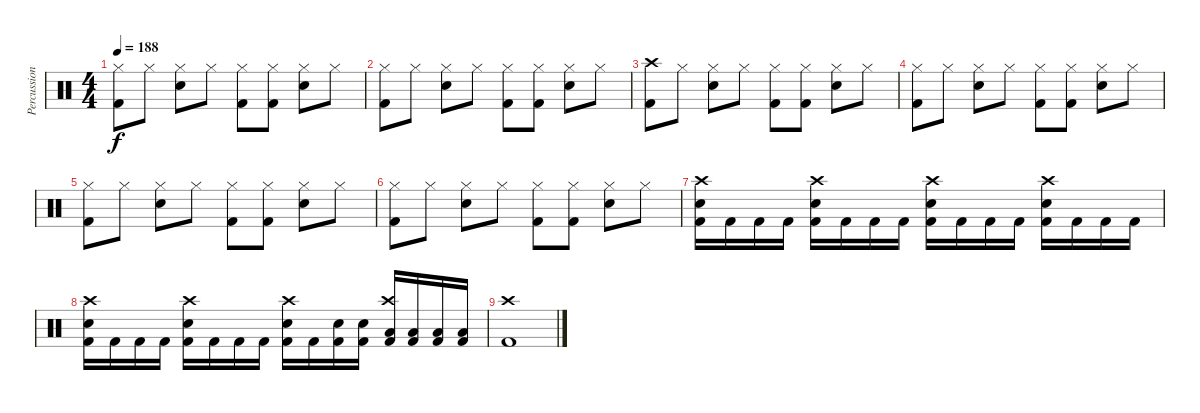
\track ("Percussions" "Percussion") {instrument percussion}
\staff {score}
\articulation defaults
\ts (4 4)
\tempo 188
\clef neutral
\ks c
("Hi-Hat (closed)" "Kick (hit) 2").8{dy f} "Hi-Hat (closed)".8 ("Hi-Hat (closed)" "Electric Snare (hit)").8 "Hi-Hat (closed)".8 ("Hi-Hat (closed)" "Kick (hit) 2").8 ("Hi-Hat (closed)" "Kick (hit) 2").8 ("Hi-Hat (closed)" "Electric Snare (hit)").8 "Hi-Hat (closed)".8 |
("Hi-Hat (closed)" "Kick (hit) 2").8 "Hi-Hat (closed)".8 ("Hi-Hat (closed)" "Electric Snare (hit)").8 "Hi-Hat (closed)".8 ("Hi-Hat (closed)" "Kick (hit) 2").8 ("Hi-Hat (closed)" "Kick (hit) 2").8 ("Hi-Hat (closed)" "Electric Snare (hit)").8 "Hi-Hat (closed)".8 |
("Crash high (hit)" "Kick (hit) 2").8 "Hi-Hat (closed)".8 ("Hi-Hat (closed)" "Electric Snare (hit)").8 "Hi-Hat (closed)".8 ("Hi-Hat (closed)" "Kick (hit) 2").8 ("Hi-Hat (closed)" "Kick (hit) 2").8 ("Hi-Hat (closed)" "Electric Snare (hit)").8 "Hi-Hat (closed)".8 |
("Hi-Hat (closed)" "Kick (hit) 2").8 "Hi-Hat (closed)".8 ("Hi-Hat (closed)" "Electric Snare (hit)").8 "Hi-Hat (closed)".8 ("Hi-Hat (closed)" "Kick (hit) 2").8 ("Hi-Hat (closed)" "Kick (hit) 2").8 ("Hi-Hat (closed)" "Electric Snare (hit)").8 "Hi-Hat (closed)".8 |
("Hi-Hat (closed)" "Kick (hit) 2").8 "Hi-Hat (closed)".8 ("Hi-Hat (closed)" "Electric Snare (hit)").8 "Hi-Hat (closed)".8 ("Hi-Hat (closed)" "Kick (hit) 2").8 ("Hi-Hat (closed)" "Kick (hit) 2").8 ("Hi-Hat (closed)" "Electric Snare (hit)").8 "Hi-Hat (closed)".8 |
("Hi-Hat (closed)" "Kick (hit) 2").8 "Hi-Hat (closed)".8 ("Hi-Hat (closed)" "Electric Snare (hit)").8 "Hi-Hat (closed)".8 ("Hi-Hat (closed)" "Kick (hit) 2").8 ("Hi-Hat (closed)" "Kick (hit) 2").8 ("Hi-Hat (closed)" "Electric Snare (hit)").8 "Hi-Hat (closed)".8 |
("Crash high (hit)" "Electric Snare (hit)" "Kick (hit) 2").16 "Kick (hit) 2".16 "Kick (hit) 2".16 "Kick (hit) 2".16 ("Crash high (hit)" "Electric Snare (hit)" "Kick (hit) 2").16 "Kick (hit) 2".16 "Kick (hit) 2".16 "Kick (hit) 2".16 ("Crash high (hit)" "Electric Snare (hit)" "Kick (hit) 2").16 "Kick (hit) 2".16 "Kick (hit) 2".16 "Kick (hit) 2".16 ("Crash high (hit)" "Electric Snare (hit)" "Kick (hit) 2").16 "Kick (hit) 2".16 "Kick (hit) 2".16 "Kick (hit) 2".16 |
("Crash high (hit)" "Electric Snare (hit)" "Kick (hit) 2").16 "Kick (hit) 2".16 "Kick (hit) 2".16 "Kick (hit) 2".16 ("Crash high (hit)" "Electric Snare (hit)" "Kick (hit) 2").16 "Kick (hit) 2".16 "Kick (hit) 2".16 "Kick (hit) 2".16 ("Crash high (hit)" "Electric Snare (hit)" "Kick (hit) 2").16 "Kick (hit) 2".16 ("Electric Snare (hit)" "Kick (hit) 2").16 ("Electric Snare (hit)" "Kick (hit) 2").16 ("Crash high (hit)" "Low Tom (hit)" "Kick (hit) 2").16 ("Low Tom (hit)" "Kick (hit) 2").16 ("Low Floor Tom (hit)" "Kick (hit) 2").16 ("Low Floor Tom (hit)" "Kick (hit) 2").16 |
("Crash high (hit)" "Kick (hit) 2").1
